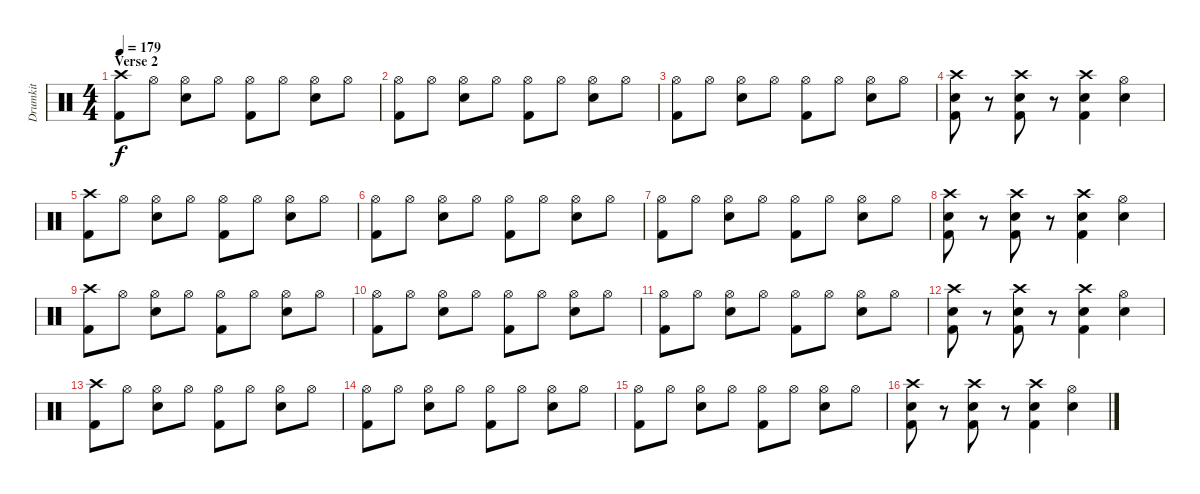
\track ("Drumkit" "Drumkit") {instrument percussion}
\staff {score}
\articulation defaults
\ts (4 4)
\section ("" "Verse 2")
\tempo 179
\clef neutral
\ks c
("Crash high (hit)" "Kick (hit) 2").8{dy f} "Hi-Hat (open)".8 ("Snare (hit) 2" "Hi-Hat (open)").8 "Hi-Hat (open)".8 ("Kick (hit) 2" "Hi-Hat (open)").8 "Hi-Hat (open)".8 ("Snare (hit) 2" "Hi-Hat (open)").8 "Hi-Hat (open)".8 |
("Kick (hit) 2" "Hi-Hat (open)").8 "Hi-Hat (open)".8 ("Snare (hit) 2" "Hi-Hat (open)").8 "Hi-Hat (open)".8 ("Kick (hit) 2" "Hi-Hat (open)").8 "Hi-Hat (open)".8 ("Snare (hit) 2" "Hi-Hat (open)").8 "Hi-Hat (open)".8 |
("Kick (hit) 2" "Hi-Hat (open)").8 "Hi-Hat (open)".8 ("Snare (hit) 2" "Hi-Hat (open)").8 "Hi-Hat (open)".8 ("Kick (hit) 2" "Hi-Hat (open)").8 "Hi-Hat (open)".8 ("Snare (hit) 2" "Hi-Hat (open)").8 "Hi-Hat (open)".8 |
("Snare (hit) 2" "Kick (hit) 2" "Crash high (hit)").8 r.8 ("Snare (hit) 2" "Kick (hit) 2" "Crash high (hit)").8 r.8 ("Snare (hit) 2" "Kick (hit) 2" "Crash high (hit)").4 ("Snare (hit) 2" "Hi-Hat (open)").4 |
("Crash high (hit)" "Kick (hit) 2").8 "Hi-Hat (open)".8 ("Snare (hit) 2" "Hi-Hat (open)").8 "Hi-Hat (open)".8 ("Kick (hit) 2" "Hi-Hat (open)").8 "Hi-Hat (open)".8 ("Snare (hit) 2" "Hi-Hat (open)").8 "Hi-Hat (open)".8 |
("Kick (hit) 2" "Hi-Hat (open)").8 "Hi-Hat (open)".8 ("Snare (hit) 2" "Hi-Hat (open)").8 "Hi-Hat (open)".8 ("Kick (hit) 2" "Hi-Hat (open)").8 "Hi-Hat (open)".8 ("Snare (hit) 2" "Hi-Hat (open)").8 "Hi-Hat (open)".8 |
("Kick (hit) 2" "Hi-Hat (open)").8 "Hi-Hat (open)".8 ("Snare (hit) 2" "Hi-Hat (open)").8 "Hi-Hat (open)".8 ("Kick (hit) 2" "Hi-Hat (open)").8 "Hi-Hat (open)".8 ("Snare (hit) 2" "Hi-Hat (open)").8 "Hi-Hat (open)".8 |
("Snare (hit) 2" "Kick (hit) 2" "Crash high (hit)").8 r.8 ("Snare (hit) 2" "Kick (hit) 2" "Crash high (hit)").8 r.8 ("Snare (hit) 2" "Kick (hit) 2" "Crash high (hit)").4 ("Snare (hit) 2" "Hi-Hat (open)").4 |
("Crash high (hit)" "Kick (hit) 2").8 "Hi-Hat (open)".8 ("Snare (hit) 2" "Hi-Hat (open)").8 "Hi-Hat (open)".8 ("Kick (hit) 2" "Hi-Hat (open)").8 "Hi-Hat (open)".8 ("Snare (hit) 2" "Hi-Hat (open)").8 "Hi-Hat (open)".8 |
("Kick (hit) 2" "Hi-Hat (open)").8 "Hi-Hat (open)".8 ("Snare (hit) 2" "Hi-Hat (open)").8 "Hi-Hat (open)".8 ("Kick (hit) 2" "Hi-Hat (open)").8 "Hi-Hat (open)".8 ("Snare (hit) 2" "Hi-Hat (open)").8 "Hi-Hat (open)".8 |
("Kick (hit) 2" "Hi-Hat (open)").8 "Hi-Hat (open)".8 ("Snare (hit) 2" "Hi-Hat (open)").8 "Hi-Hat (open)".8 ("Kick (hit) 2" "Hi-Hat (open)").8 "Hi-Hat (open)".8 ("Snare (hit) 2" "Hi-Hat (open)").8 "Hi-Hat (open)".8 |
("Snare (hit) 2" "Kick (hit) 2" "Crash high (hit)").8 r.8 ("Snare (hit) 2" "Kick (hit) 2" "Crash high (hit)").8 r.8 ("Snare (hit) 2" "Kick (hit) 2" "Crash high (hit)").4 ("Snare (hit) 2" "Hi-Hat (open)").4 |
("Crash high (hit)" "Kick (hit) 2").8 "Hi-Hat (open)".8 ("Snare (hit) 2" "Hi-Hat (open)").8 "Hi-Hat (open)".8 ("Kick (hit) 2" "Hi-Hat (open)").8 "Hi-Hat (open)".8 ("Snare (hit) 2" "Hi-Hat (open)").8 "Hi-Hat (open)".8 |
("Kick (hit) 2" "Hi-Hat (open)").8 "Hi-Hat (open)".8 ("Snare (hit) 2" "Hi-Hat (open)").8 "Hi-Hat (open)".8 ("Kick (hit) 2" "Hi-Hat (open)").8 "Hi-Hat (open)".8 ("Snare (hit) 2" "Hi-Hat (open)").8 "Hi-Hat (open)".8 |
("Kick (hit) 2" "Hi-Hat (open)").8 "Hi-Hat (open)".8 ("Snare (hit) 2" "Hi-Hat (open)").8 "Hi-Hat (open)".8 ("Kick (hit) 2" "Hi-Hat (open)").8 "Hi-Hat (open)".8 ("Snare (hit) 2" "Hi-Hat (open)").8 "Hi-Hat (open)".8 |
("Snare (hit) 2" "Kick (hit) 2" "Crash high (hit)").8 r.8 ("Snare (hit) 2" "Kick (hit) 2" "Crash high (hit)").8 r.8 ("Snare (hit) 2" "Kick (hit) 2" "Crash high (hit)").4 ("Snare (hit) 2" "Hi-Hat (open)").4
